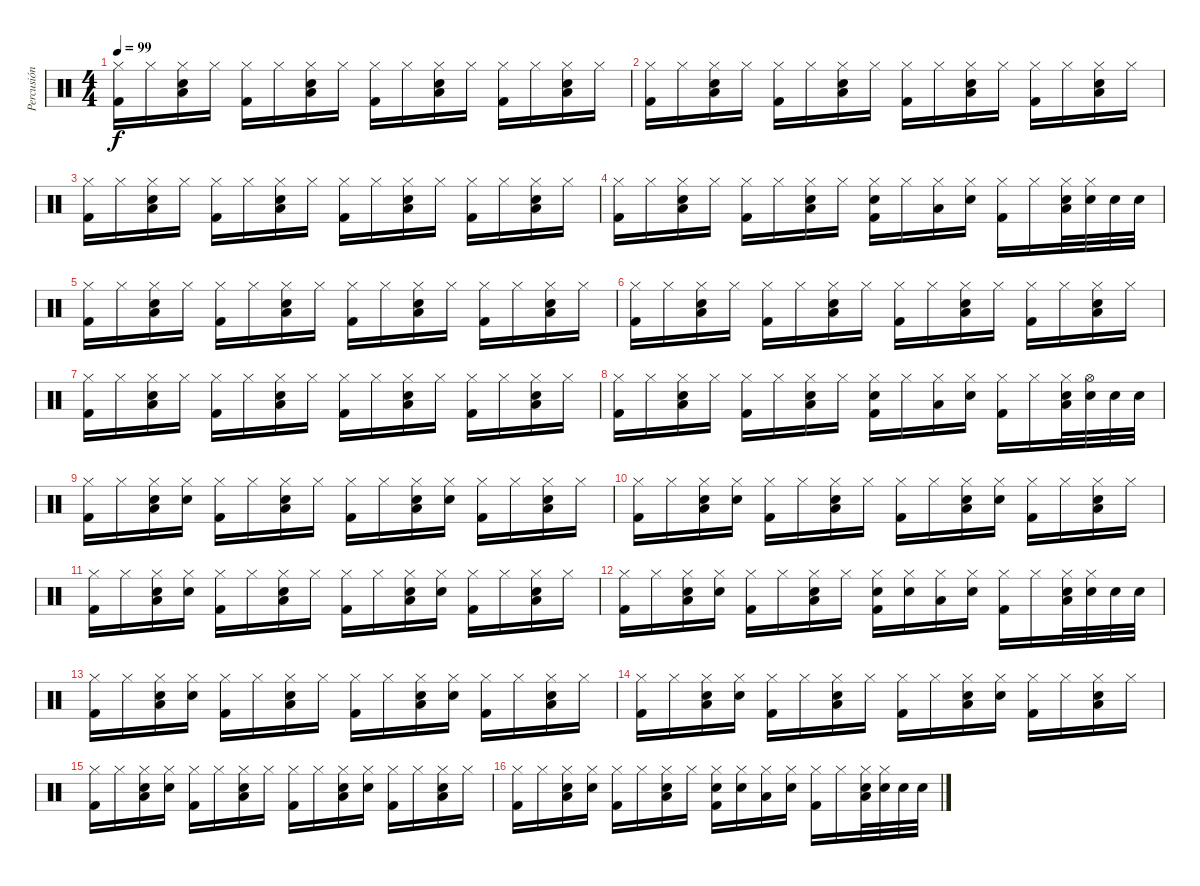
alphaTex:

\track ("Percusión" "Percusión") {instrument percussion}
\staff {score}
\articulation defaults
\ts (4 4)
\tempo 99
\clef neutral
\ks c
("Hi-Hat (closed)" "Kick (hit) 2").16{dy f} "Hi-Hat (closed)".16 ("Hi-Hat (closed)" "Snare (hit) 2" "Low Tom (hit)").16 "Hi-Hat (closed)".16 ("Hi-Hat (closed)" "Kick (hit) 2").16 "Hi-Hat (closed)".16 ("Hi-Hat (closed)" "Snare (hit) 2" "Low Tom (hit)").16 "Hi-Hat (closed)".16 ("Hi-Hat (closed)" "Kick (hit) 2").16 "Hi-Hat (closed)".16 ("Hi-Hat (closed)" "Snare (hit) 2" "Low Tom (hit)").16 "Hi-Hat (closed)".16 ("Hi-Hat (closed)" "Kick (hit) 2").16 "Hi-Hat (closed)".16 ("Hi-Hat (closed)" "Snare (hit) 2" "Low Tom (hit)").16 "Hi-Hat (closed)".16 |
("Hi-Hat (closed)" "Kick (hit) 2").16 "Hi-Hat (closed)".16 ("Hi-Hat (closed)" "Snare (hit) 2" "Low Tom (hit)").16 "Hi-Hat (closed)".16 ("Hi-Hat (closed)" "Kick (hit) 2").16 "Hi-Hat (closed)".16 ("Hi-Hat (closed)" "Snare (hit) 2" "Low Tom (hit)").16 "Hi-Hat (closed)".16 ("Hi-Hat (closed)" "Kick (hit) 2").16 "Hi-Hat (closed)".16 ("Hi-Hat (closed)" "Snare (hit) 2" "Low Tom (hit)").16 "Hi-Hat (closed)".16 ("Hi-Hat (closed)" "Kick (hit) 2").16 "Hi-Hat (closed)".16 ("Hi-Hat (closed)" "Snare (hit) 2" "Low Tom (hit)").16 "Hi-Hat (closed)".16 |
("Hi-Hat (closed)" "Kick (hit) 2").16 "Hi-Hat (closed)".16 ("Hi-Hat (closed)" "Snare (hit) 2" "Low Tom (hit)").16 "Hi-Hat (closed)".16 ("Hi-Hat (closed)" "Kick (hit) 2").16 "Hi-Hat (closed)".16 ("Hi-Hat (closed)" "Snare (hit) 2" "Low Tom (hit)").16 "Hi-Hat (closed)".16 ("Hi-Hat (closed)" "Kick (hit) 2").16 "Hi-Hat (closed)".16 ("Hi-Hat (closed)" "Snare (hit) 2" "Low Tom (hit)").16 "Hi-Hat (closed)".16 ("Hi-Hat (closed)" "Kick (hit) 2").16 "Hi-Hat (closed)".16 ("Hi-Hat (closed)" "Snare (hit) 2" "Low Tom (hit)").16 "Hi-Hat (closed)".16 |
("Hi-Hat (closed)" "Kick (hit) 2").16 "Hi-Hat (closed)".16 ("Hi-Hat (closed)" "Snare (hit) 2" "Low Tom (hit)").16 "Hi-Hat (closed)".16 ("Hi-Hat (closed)" "Kick (hit) 2").16 "Hi-Hat (closed)".16 ("Hi-Hat (closed)" "Snare (hit) 2" "Low Tom (hit)").16 "Hi-Hat (closed)".16 ("Hi-Hat (closed)" "Snare (hit) 2" "Kick (hit) 2").16 "Hi-Hat (closed)".16 ("Hi-Hat (closed)" "Low Tom (hit)").16 ("Hi-Hat (closed)" "Snare (hit) 2").16 ("Hi-Hat (closed)" "Kick (hit) 2").16 "Hi-Hat (closed)".16 ("Hi-Hat (closed)" "Snare (hit) 2" "Low Tom (hit)").32 ("Hi-Hat (closed)" "Snare (hit) 2").32 "Snare (hit) 2".32 "Snare (hit) 2".32 |
("Hi-Hat (closed)" "Kick (hit) 2").16 "Hi-Hat (closed)".16 ("Hi-Hat (closed)" "Snare (hit) 2" "Low Tom (hit)").16 "Hi-Hat (closed)".16 ("Hi-Hat (closed)" "Kick (hit) 2").16 "Hi-Hat (closed)".16 ("Hi-Hat (closed)" "Snare (hit) 2" "Low Tom (hit)").16 "Hi-Hat (closed)".16 ("Hi-Hat (closed)" "Kick (hit) 2").16 "Hi-Hat (closed)".16 ("Hi-Hat (closed)" "Snare (hit) 2" "Low Tom (hit)").16 "Hi-Hat (closed)".16 ("Hi-Hat (closed)" "Kick (hit) 2").16 "Hi-Hat (closed)".16 ("Hi-Hat (closed)" "Snare (hit) 2" "Low Tom (hit)").16 "Hi-Hat (closed)".16 |
("Hi-Hat (closed)" "Kick (hit) 2").16 "Hi-Hat (closed)".16 ("Hi-Hat (closed)" "Snare (hit) 2" "Low Tom (hit)").16 "Hi-Hat (closed)".16 ("Hi-Hat (closed)" "Kick (hit) 2").16 "Hi-Hat (closed)".16 ("Hi-Hat (closed)" "Snare (hit) 2" "Low Tom (hit)").16 "Hi-Hat (closed)".16 ("Hi-Hat (closed)" "Kick (hit) 2").16 "Hi-Hat (closed)".16 ("Hi-Hat (closed)" "Snare (hit) 2" "Low Tom (hit)").16 "Hi-Hat (closed)".16 ("Hi-Hat (closed)" "Kick (hit) 2").16 "Hi-Hat (closed)".16 ("Hi-Hat (closed)" "Snare (hit) 2" "Low Tom (hit)").16 "Hi-Hat (closed)".16 |
("Hi-Hat (closed)" "Kick (hit) 2").16 "Hi-Hat (closed)".16 ("Hi-Hat (closed)" "Snare (hit) 2" "Low Tom (hit)").16 "Hi-Hat (closed)".16 ("Hi-Hat (closed)" "Kick (hit) 2").16 "Hi-Hat (closed)".16 ("Hi-Hat (closed)" "Snare (hit) 2" "Low Tom (hit)").16 "Hi-Hat (closed)".16 ("Hi-Hat (closed)" "Kick (hit) 2").16 "Hi-Hat (closed)".16 ("Hi-Hat (closed)" "Snare (hit) 2" "Low Tom (hit)").16 "Hi-Hat (closed)".16 ("Hi-Hat (closed)" "Kick (hit) 2").16 "Hi-Hat (closed)".16 ("Hi-Hat (closed)" "Snare (hit) 2" "Low Tom (hit)").16 "Hi-Hat (closed)".16 |
("Hi-Hat (closed)" "Kick (hit) 2").16 "Hi-Hat (closed)".16 ("Hi-Hat (closed)" "Snare (hit) 2" "Low Tom (hit)").16 "Hi-Hat (closed)".16 ("Hi-Hat (closed)" "Kick (hit) 2").16 "Hi-Hat (closed)".16 ("Hi-Hat (closed)" "Snare (hit) 2" "Low Tom (hit)").16 "Hi-Hat (closed)".16 ("Hi-Hat (closed)" "Snare (hit) 2" "Kick (hit) 2").16 "Hi-Hat (closed)".16 ("Hi-Hat (closed)" "Low Tom (hit)").16 ("Hi-Hat (closed)" "Snare (hit) 2").16 ("Hi-Hat (closed)" "Kick (hit) 2").16 "Hi-Hat (closed)".16 ("Hi-Hat (closed)" "Snare (hit) 2" "Low Tom (hit)").32 ("Hi-Hat (open)" "Snare (hit) 2").32 "Snare (hit) 2".32 "Snare (hit) 2".32 |
("Hi-Hat (closed)" "Kick (hit) 2").16 "Hi-Hat (closed)".16 ("Hi-Hat (closed)" "Snare (hit) 2" "Low Tom (hit)").16 ("Hi-Hat (closed)" "Snare (hit) 2").16 ("Hi-Hat (closed)" "Kick (hit) 2").16 "Hi-Hat (closed)".16 ("Hi-Hat (closed)" "Snare (hit) 2" "Low Tom (hit)").16 "Hi-Hat (closed)".16 ("Hi-Hat (closed)" "Kick (hit) 2").16 "Hi-Hat (closed)".16 ("Hi-Hat (closed)" "Snare (hit) 2" "Low Tom (hit)").16 ("Hi-Hat (closed)" "Snare (hit) 2").16 ("Hi-Hat (closed)" "Kick (hit) 2").16 "Hi-Hat (closed)".16 ("Hi-Hat (closed)" "Snare (hit) 2" "Low Tom (hit)").16 "Hi-Hat (closed)".16 |
("Hi-Hat (closed)" "Kick (hit) 2").16 "Hi-Hat (closed)".16 ("Hi-Hat (closed)" "Snare (hit) 2" "Low Tom (hit)").16 ("Hi-Hat (closed)" "Snare (hit) 2").16 ("Hi-Hat (closed)" "Kick (hit) 2").16 "Hi-Hat (closed)".16 ("Hi-Hat (closed)" "Snare (hit) 2" "Low Tom (hit)").16 "Hi-Hat (closed)".16 ("Hi-Hat (closed)" "Kick (hit) 2").16 "Hi-Hat (closed)".16 ("Hi-Hat (closed)" "Snare (hit) 2" "Low Tom (hit)").16 ("Hi-Hat (closed)" "Snare (hit) 2").16 ("Hi-Hat (closed)" "Kick (hit) 2").16 "Hi-Hat (closed)".16 ("Hi-Hat (closed)" "Snare (hit) 2" "Low Tom (hit)").16 "Hi-Hat (closed)".16 |
("Hi-Hat (closed)" "Kick (hit) 2").16 "Hi-Hat (closed)".16 ("Hi-Hat (closed)" "Snare (hit) 2" "Low Tom (hit)").16 ("Hi-Hat (closed)" "Snare (hit) 2").16 ("Hi-Hat (closed)" "Kick (hit) 2").16 "Hi-Hat (closed)".16 ("Hi-Hat (closed)" "Snare (hit) 2" "Low Tom (hit)").16 "Hi-Hat (closed)".16 ("Hi-Hat (closed)" "Kick (hit) 2").16 "Hi-Hat (closed)".16 ("Hi-Hat (closed)" "Snare (hit) 2" "Low Tom (hit)").16 ("Hi-Hat (closed)" "Snare (hit) 2").16 ("Hi-Hat (closed)" "Kick (hit) 2").16 "Hi-Hat (closed)".16 ("Hi-Hat (closed)" "Snare (hit) 2" "Low Tom (hit)").16 "Hi-Hat (closed)".16 |
("Hi-Hat (closed)" "Kick (hit) 2").16 "Hi-Hat (closed)".16 ("Hi-Hat (closed)" "Snare (hit) 2" "Low Tom (hit)").16 ("Hi-Hat (closed)" "Snare (hit) 2").16 ("Hi-Hat (closed)" "Kick (hit) 2").16 "Hi-Hat (closed)".16 ("Hi-Hat (closed)" "Snare (hit) 2" "Low Tom (hit)").16 "Hi-Hat (closed)".16 ("Hi-Hat (closed)" "Snare (hit) 2" "Kick (hit) 2").16 ("Hi-Hat (closed)" "Snare (hit) 2").16 ("Hi-Hat (closed)" "Low Tom (hit)").16 ("Hi-Hat (closed)" "Snare (hit) 2").16 ("Hi-Hat (closed)" "Kick (hit) 2").16 "Hi-Hat (closed)".16 ("Hi-Hat (closed)" "Snare (hit) 2" "Low Tom (hit)").32 ("Hi-Hat (closed)" "Snare (hit) 2").32 "Snare (hit) 2".32 "Snare (hit) 2".32 |
("Hi-Hat (closed)" "Kick (hit) 2").16 "Hi-Hat (closed)".16 ("Hi-Hat (closed)" "Snare (hit) 2" "Low Tom (hit)").16 ("Hi-Hat (closed)" "Snare (hit) 2").16 ("Hi-Hat (closed)" "Kick (hit) 2").16 "Hi-Hat (closed)".16 ("Hi-Hat (closed)" "Snare (hit) 2" "Low Tom (hit)").16 "Hi-Hat (closed)".16 ("Hi-Hat (closed)" "Kick (hit) 2").16 "Hi-Hat (closed)".16 ("Hi-Hat (closed)" "Snare (hit) 2" "Low Tom (hit)").16 ("Hi-Hat (closed)" "Snare (hit) 2").16 ("Hi-Hat (closed)" "Kick (hit) 2").16 "Hi-Hat (closed)".16 ("Hi-Hat (closed)" "Snare (hit) 2" "Low Tom (hit)").16 "Hi-Hat (closed)".16 |
("Hi-Hat (closed)" "Kick (hit) 2").16 "Hi-Hat (closed)".16 ("Hi-Hat (closed)" "Snare (hit) 2" "Low Tom (hit)").16 ("Hi-Hat (closed)" "Snare (hit) 2").16 ("Hi-Hat (closed)" "Kick (hit) 2").16 "Hi-Hat (closed)".16 ("Hi-Hat (closed)" "Snare (hit) 2" "Low Tom (hit)").16 "Hi-Hat (closed)".16 ("Hi-Hat (closed)" "Kick (hit) 2").16 "Hi-Hat (closed)".16 ("Hi-Hat (closed)" "Snare (hit) 2" "Low Tom (hit)").16 ("Hi-Hat (closed)" "Snare (hit) 2").16 ("Hi-Hat (closed)" "Kick (hit) 2").16 "Hi-Hat (closed)".16 ("Hi-Hat (closed)" "Snare (hit) 2" "Low Tom (hit)").16 "Hi-Hat (closed)".16 |
("Hi-Hat (closed)" "Kick (hit) 2").16 "Hi-Hat (closed)".16 ("Hi-Hat (closed)" "Snare (hit) 2" "Low Tom (hit)").16 ("Hi-Hat (closed)" "Snare (hit) 2").16 ("Hi-Hat (closed)" "Kick (hit) 2").16 "Hi-Hat (closed)".16 ("Hi-Hat (closed)" "Snare (hit) 2" "Low Tom (hit)").16 "Hi-Hat (closed)".16 ("Hi-Hat (closed)" "Kick (hit) 2").16 "Hi-Hat (closed)".16 ("Hi-Hat (closed)" "Snare (hit) 2" "Low Tom (hit)").16 ("Hi-Hat (closed)" "Snare (hit) 2").16 ("Hi-Hat (closed)" "Kick (hit) 2").16 "Hi-Hat (closed)".16 ("Hi-Hat (closed)" "Snare (hit) 2" "Low Tom (hit)").16 "Hi-Hat (closed)".16 |
("Hi-Hat (closed)" "Kick (hit) 2").16 "Hi-Hat (closed)".16 ("Hi-Hat (closed)" "Snare (hit) 2" "Low Tom (hit)").16 ("Hi-Hat (closed)" "Snare (hit) 2").16 ("Hi-Hat (closed)" "Kick (hit) 2").16 "Hi-Hat (closed)".16 ("Hi-Hat (closed)" "Snare (hit) 2" "Low Tom (hit)").16 "Hi-Hat (closed)".16 ("Hi-Hat (closed)" "Snare (hit) 2" "Kick (hit) 2").16 ("Hi-Hat (closed)" "Snare (hit) 2").16 ("Hi-Hat (closed)" "Low Tom (hit)").16 ("Hi-Hat (closed)" "Snare (hit) 2").16 ("Hi-Hat (closed)" "Kick (hit) 2").16 "Hi-Hat (closed)".16 ("Hi-Hat (closed)" "Snare (hit) 2" "Low Tom (hit)").32 ("Hi-Hat (closed)" "Snare (hit) 2").32 "Snare (hit) 2".32 "Snare (hit) 2".32
